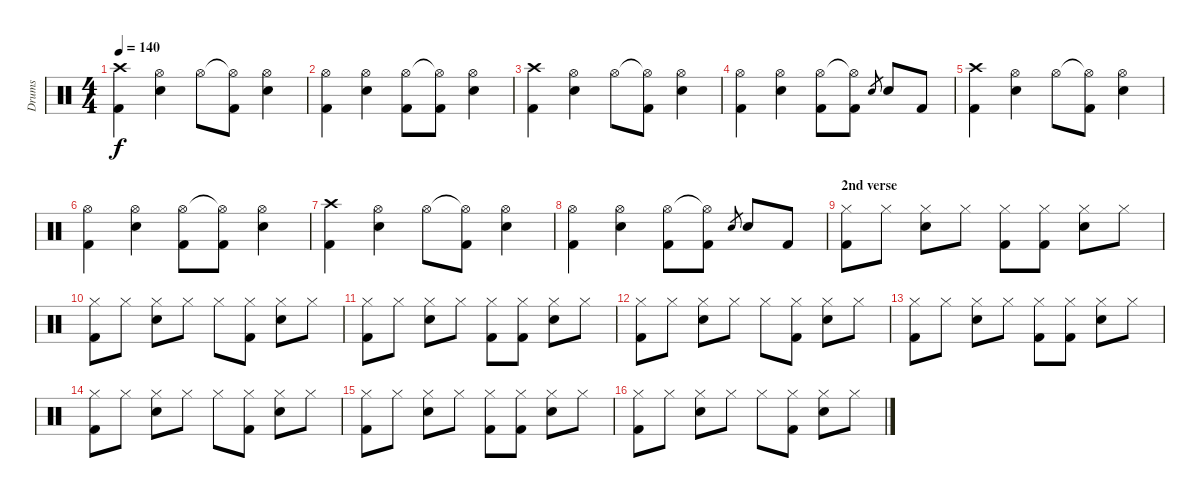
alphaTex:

\track ("Drums" "Drums") {instrument percussion}
\staff {score}
\articulation defaults
\ts (4 4)
\tempo 140
\clef neutral
\ks c
("Crash high (hit)" "Kick (hit) 2").4{dy f} ("Hi-Hat (open)" "Electric Snare (hit)").4 "Hi-Hat (open)".8 ("Hi-Hat (open)"{t} "Kick (hit) 2").8 ("Hi-Hat (open)" "Electric Snare (hit)").4 |
("Hi-Hat (open)" "Kick (hit) 2").4 ("Hi-Hat (open)" "Electric Snare (hit)").4 ("Hi-Hat (open)" "Kick (hit) 2").8 ("Hi-Hat (open)"{t} "Kick (hit) 2").8 ("Hi-Hat (open)" "Electric Snare (hit)").4 |
("Crash high (hit)" "Kick (hit) 2").4 ("Hi-Hat (open)" "Electric Snare (hit)").4 "Hi-Hat (open)".8 ("Hi-Hat (open)"{t} "Kick (hit) 2").8 ("Hi-Hat (open)" "Electric Snare (hit)").4 |
("Hi-Hat (open)" "Kick (hit) 2").4 ("Hi-Hat (open)" "Electric Snare (hit)").4 ("Hi-Hat (open)" "Kick (hit) 2").8 ("Hi-Hat (open)"{t} "Kick (hit) 2").8 "Electric Snare (hit)".8{gr} "Electric Snare (hit)".8 "Kick (hit) 2".8 |
("Crash high (hit)" "Kick (hit) 2").4 ("Hi-Hat (open)" "Electric Snare (hit)").4 "Hi-Hat (open)".8 ("Hi-Hat (open)"{t} "Kick (hit) 2").8 ("Hi-Hat (open)" "Electric Snare (hit)").4 |
("Hi-Hat (open)" "Kick (hit) 2").4 ("Hi-Hat (open)" "Electric Snare (hit)").4 ("Hi-Hat (open)" "Kick (hit) 2").8 ("Hi-Hat (open)"{t} "Kick (hit) 2").8 ("Hi-Hat (open)" "Electric Snare (hit)").4 |
("Crash high (hit)" "Kick (hit) 2").4 ("Hi-Hat (open)" "Electric Snare (hit)").4 "Hi-Hat (open)".8 ("Hi-Hat (open)"{t} "Kick (hit) 2").8 ("Hi-Hat (open)" "Electric Snare (hit)").4 |
("Hi-Hat (open)" "Kick (hit) 2").4 ("Hi-Hat (open)" "Electric Snare (hit)").4 ("Hi-Hat (open)" "Kick (hit) 2").8 ("Hi-Hat (open)"{t} "Kick (hit) 2").8 "Electric Snare (hit)".8{gr} "Electric Snare (hit)".8 "Kick (hit) 2".8 |
\section ("" "2nd verse")
("Hi-Hat (closed)" "Kick (hit) 2").8 "Hi-Hat (closed)".8 ("Hi-Hat (closed)" "Electric Snare (hit)").8 "Hi-Hat (closed)".8 ("Hi-Hat (closed)" "Kick (hit) 2").8 ("Hi-Hat (closed)" "Kick (hit) 2").8 ("Hi-Hat (closed)" "Electric Snare (hit)").8 "Hi-Hat (closed)".8 |
("Hi-Hat (closed)" "Kick (hit) 2").8 "Hi-Hat (closed)".8 ("Hi-Hat (closed)" "Electric Snare (hit)").8 "Hi-Hat (closed)".8 "Hi-Hat (closed)".8 ("Hi-Hat (closed)" "Kick (hit) 2").8 ("Hi-Hat (closed)" "Electric Snare (hit)").8 "Hi-Hat (closed)".8 |
("Hi-Hat (closed)" "Kick (hit) 2").8 "Hi-Hat (closed)".8 ("Hi-Hat (closed)" "Electric Snare (hit)").8 "Hi-Hat (closed)".8 ("Hi-Hat (closed)" "Kick (hit) 2").8 ("Hi-Hat (closed)" "Kick (hit) 2").8 ("Hi-Hat (closed)" "Electric Snare (hit)").8 "Hi-Hat (closed)".8 |
("Hi-Hat (closed)" "Kick (hit) 2").8 "Hi-Hat (closed)".8 ("Hi-Hat (closed)" "Electric Snare (hit)").8 "Hi-Hat (closed)".8 "Hi-Hat (closed)".8 ("Hi-Hat (closed)" "Kick (hit) 2").8 ("Hi-Hat (closed)" "Electric Snare (hit)").8 "Hi-Hat (closed)".8 |
("Hi-Hat (closed)" "Kick (hit) 2").8 "Hi-Hat (closed)".8 ("Hi-Hat (closed)" "Electric Snare (hit)").8 "Hi-Hat (closed)".8 ("Hi-Hat (closed)" "Kick (hit) 2").8 ("Hi-Hat (closed)" "Kick (hit) 2").8 ("Hi-Hat (closed)" "Electric Snare (hit)").8 "Hi-Hat (closed)".8 |
("Hi-Hat (closed)" "Kick (hit) 2").8 "Hi-Hat (closed)".8 ("Hi-Hat (closed)" "Electric Snare (hit)").8 "Hi-Hat (closed)".8 "Hi-Hat (closed)".8 ("Hi-Hat (closed)" "Kick (hit) 2").8 ("Hi-Hat (closed)" "Electric Snare (hit)").8 "Hi-Hat (closed)".8 |
("Hi-Hat (closed)" "Kick (hit) 2").8 "Hi-Hat (closed)".8 ("Hi-Hat (closed)" "Electric Snare (hit)").8 "Hi-Hat (closed)".8 ("Hi-Hat (closed)" "Kick (hit) 2").8 ("Hi-Hat (closed)" "Kick (hit) 2").8 ("Hi-Hat (closed)" "Electric Snare (hit)").8 "Hi-Hat (closed)".8 |
("Hi-Hat (closed)" "Kick (hit) 2").8 "Hi-Hat (closed)".8 ("Hi-Hat (closed)" "Electric Snare (hit)").8 "Hi-Hat (closed)".8 "Hi-Hat (closed)".8 ("Hi-Hat (closed)" "Kick (hit) 2").8 ("Hi-Hat (closed)" "Electric Snare (hit)").8 "Hi-Hat (closed)".8
